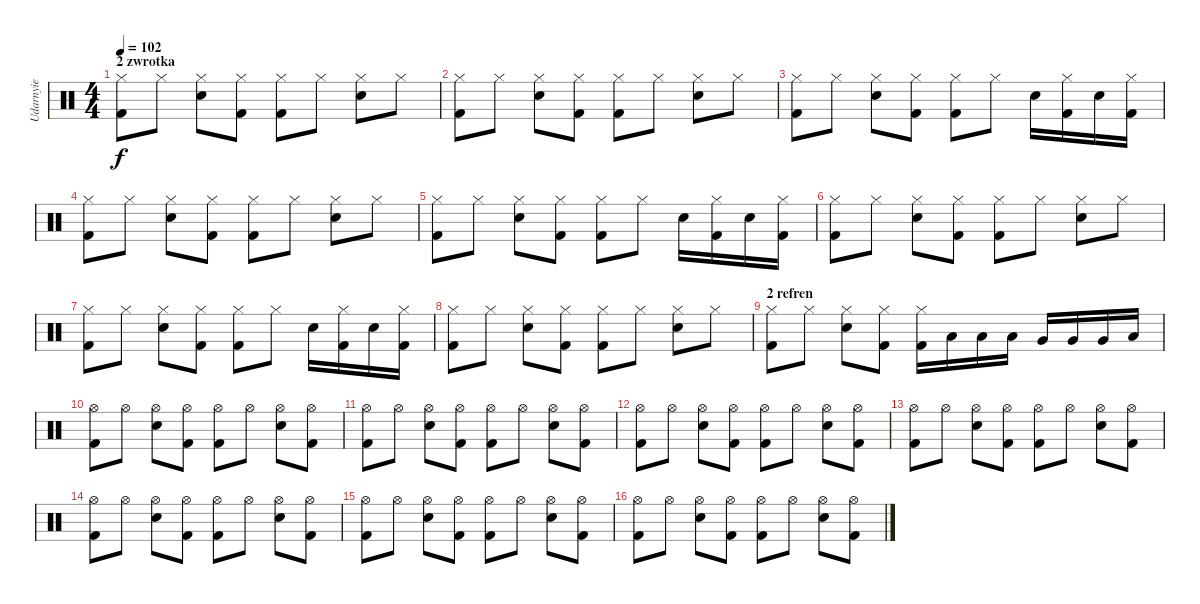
\track ("Udarnyie" "Udarnyie") {instrument percussion}
\staff {score}
\articulation defaults
\ts (4 4)
\section ("" "2 zwrotka")
\tempo 102
\clef neutral
\ks c
("Hi-Hat (closed)" "Kick (hit) 2").8{dy f} "Hi-Hat (closed)".8 ("Hi-Hat (closed)" "Snare (hit) 2").8 ("Hi-Hat (closed)" "Kick (hit) 2").8 ("Hi-Hat (closed)" "Kick (hit) 2").8 "Hi-Hat (closed)".8 ("Hi-Hat (closed)" "Snare (hit) 2").8 "Hi-Hat (closed)".8 |
("Hi-Hat (closed)" "Kick (hit) 2").8 "Hi-Hat (closed)".8 ("Hi-Hat (closed)" "Snare (hit) 2").8 ("Hi-Hat (closed)" "Kick (hit) 2").8 ("Hi-Hat (closed)" "Kick (hit) 2").8 "Hi-Hat (closed)".8 ("Hi-Hat (closed)" "Snare (hit) 2").8 "Hi-Hat (closed)".8 |
("Hi-Hat (closed)" "Kick (hit) 2").8 "Hi-Hat (closed)".8 ("Hi-Hat (closed)" "Snare (hit) 2").8 ("Hi-Hat (closed)" "Kick (hit) 2").8 ("Hi-Hat (closed)" "Kick (hit) 2").8 "Hi-Hat (closed)".8 "Snare (hit) 2".16 ("Hi-Hat (closed)" "Kick (hit) 2").16 "Snare (hit) 2".16 ("Hi-Hat (closed)" "Kick (hit) 2").16 |
("Hi-Hat (closed)" "Kick (hit) 2").8 "Hi-Hat (closed)".8 ("Hi-Hat (closed)" "Snare (hit) 2").8 ("Hi-Hat (closed)" "Kick (hit) 2").8 ("Hi-Hat (closed)" "Kick (hit) 2").8 "Hi-Hat (closed)".8 ("Hi-Hat (closed)" "Snare (hit) 2").8 "Hi-Hat (closed)".8 |
("Hi-Hat (closed)" "Kick (hit) 2").8 "Hi-Hat (closed)".8 ("Hi-Hat (closed)" "Snare (hit) 2").8 ("Hi-Hat (closed)" "Kick (hit) 2").8 ("Hi-Hat (closed)" "Kick (hit) 2").8 "Hi-Hat (closed)".8 "Snare (hit) 2".16 ("Hi-Hat (closed)" "Kick (hit) 2").16 "Snare (hit) 2".16 ("Hi-Hat (closed)" "Kick (hit) 2").16 |
("Hi-Hat (closed)" "Kick (hit) 2").8 "Hi-Hat (closed)".8 ("Hi-Hat (closed)" "Snare (hit) 2").8 ("Hi-Hat (closed)" "Kick (hit) 2").8 ("Hi-Hat (closed)" "Kick (hit) 2").8 "Hi-Hat (closed)".8 ("Hi-Hat (closed)" "Snare (hit) 2").8 "Hi-Hat (closed)".8 |
("Hi-Hat (closed)" "Kick (hit) 2").8 "Hi-Hat (closed)".8 ("Hi-Hat (closed)" "Snare (hit) 2").8 ("Hi-Hat (closed)" "Kick (hit) 2").8 ("Hi-Hat (closed)" "Kick (hit) 2").8 "Hi-Hat (closed)".8 "Snare (hit) 2".16 ("Hi-Hat (closed)" "Kick (hit) 2").16 "Snare (hit) 2".16 ("Hi-Hat (closed)" "Kick (hit) 2").16 |
("Hi-Hat (closed)" "Kick (hit) 2").8 "Hi-Hat (closed)".8 ("Hi-Hat (closed)" "Snare (hit) 2").8 ("Hi-Hat (closed)" "Kick (hit) 2").8 ("Hi-Hat (closed)" "Kick (hit) 2").8 "Hi-Hat (closed)".8 ("Hi-Hat (closed)" "Snare (hit) 2").8 "Hi-Hat (closed)".8 |
\section ("" "2 refren")
("Hi-Hat (closed)" "Kick (hit) 2").8 "Hi-Hat (closed)".8 ("Hi-Hat (closed)" "Snare (hit) 2").8 ("Hi-Hat (closed)" "Kick (hit) 2").8 ("Hi-Hat (closed)" "Kick (hit) 2").16 "Low Tom (hit)".16 "Low Tom (hit)".16 "Low Tom (hit)".16 "Very Low Tom (hit)".16 "Very Low Tom (hit)".16 "Very Low Tom (hit)".16 "Low Tom (hit)".16 |
("Hi-Hat (open)" "Kick (hit) 2").8 "Hi-Hat (open)".8 ("Hi-Hat (open)" "Snare (hit) 2").8 ("Hi-Hat (open)" "Kick (hit) 2").8 ("Hi-Hat (open)" "Kick (hit) 2").8 "Hi-Hat (open)".8 ("Hi-Hat (open)" "Snare (hit) 2").8 ("Hi-Hat (open)" "Kick (hit) 2").8 |
("Hi-Hat (open)" "Kick (hit) 2").8 "Hi-Hat (open)".8 ("Hi-Hat (open)" "Snare (hit) 2").8 ("Hi-Hat (open)" "Kick (hit) 2").8 ("Hi-Hat (open)" "Kick (hit) 2").8 "Hi-Hat (open)".8 ("Hi-Hat (open)" "Snare (hit) 2").8 ("Hi-Hat (open)" "Kick (hit) 2").8 |
("Hi-Hat (open)" "Kick (hit) 2").8 "Hi-Hat (open)".8 ("Hi-Hat (open)" "Snare (hit) 2").8 ("Hi-Hat (open)" "Kick (hit) 2").8 ("Hi-Hat (open)" "Kick (hit) 2").8 "Hi-Hat (open)".8 ("Hi-Hat (open)" "Snare (hit) 2").8 ("Hi-Hat (open)" "Kick (hit) 2").8 |
("Hi-Hat (open)" "Kick (hit) 2").8 "Hi-Hat (open)".8 ("Hi-Hat (open)" "Snare (hit) 2").8 ("Hi-Hat (open)" "Kick (hit) 2").8 ("Hi-Hat (open)" "Kick (hit) 2").8 "Hi-Hat (open)".8 ("Hi-Hat (open)" "Snare (hit) 2").8 ("Hi-Hat (open)" "Kick (hit) 2").8 |
("Hi-Hat (open)" "Kick (hit) 2").8 "Hi-Hat (open)".8 ("Hi-Hat (open)" "Snare (hit) 2").8 ("Hi-Hat (open)" "Kick (hit) 2").8 ("Hi-Hat (open)" "Kick (hit) 2").8 "Hi-Hat (open)".8 ("Hi-Hat (open)" "Snare (hit) 2").8 ("Hi-Hat (open)" "Kick (hit) 2").8 |
("Hi-Hat (open)" "Kick (hit) 2").8 "Hi-Hat (open)".8 ("Hi-Hat (open)" "Snare (hit) 2").8 ("Hi-Hat (open)" "Kick (hit) 2").8 ("Hi-Hat (open)" "Kick (hit) 2").8 "Hi-Hat (open)".8 ("Hi-Hat (open)" "Snare (hit) 2").8 ("Hi-Hat (open)" "Kick (hit) 2").8 |
("Hi-Hat (open)" "Kick (hit) 2").8 "Hi-Hat (open)".8 ("Hi-Hat (open)" "Snare (hit) 2").8 ("Hi-Hat (open)" "Kick (hit) 2").8 ("Hi-Hat (open)" "Kick (hit) 2").8 "Hi-Hat (open)".8 ("Hi-Hat (open)" "Snare (hit) 2").8 ("Hi-Hat (open)" "Kick (hit) 2").8
